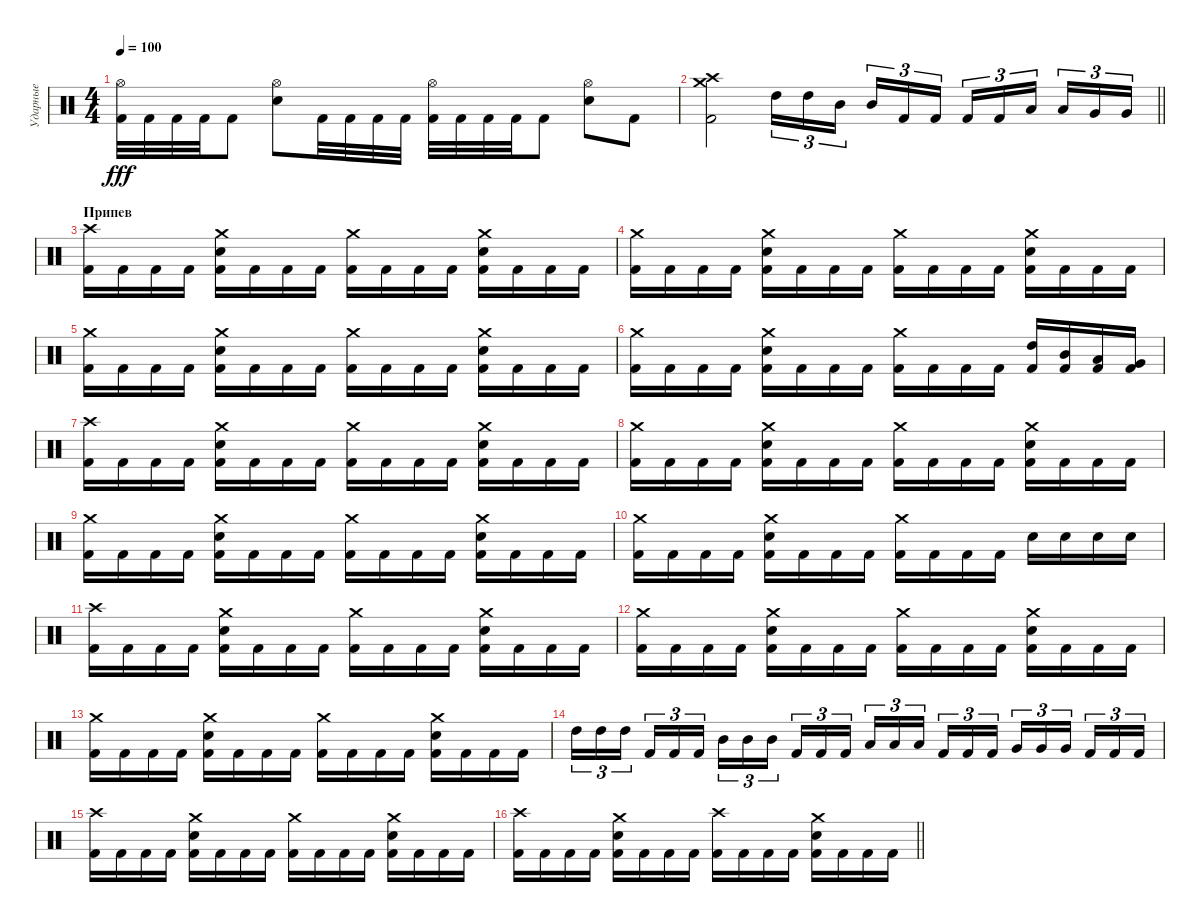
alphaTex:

\track ("Ударные" "Ударные") {instrument percussion}
\staff {score}
\articulation defaults
\ts (4 4)
\tempo 100
\clef neutral
\ks c
("Hi-Hat (open)" "Kick (hit) 2").32{dy fff} "Kick (hit) 2".32 "Kick (hit) 2".32 "Kick (hit) 2".32 "Kick (hit) 2".8 ("Hi-Hat (open)" "Electric Snare (hit)").8 "Kick (hit) 2".32 "Kick (hit) 2".32 "Kick (hit) 2".32 "Kick (hit) 2".32 ("Hi-Hat (open)" "Kick (hit) 2").32 "Kick (hit) 2".32 "Kick (hit) 2".32 "Kick (hit) 2".32 "Kick (hit) 2".8 ("Hi-Hat (open)" "Electric Snare (hit)").8 "Kick (hit) 2".8 |
\barLineRight lightlight
("Crash medium (hit)" "Crash high (hit)" "Kick (hit) 2").2 "High Tom (hit)".16{tu (3 2)} "High Tom (hit)".16{tu (3 2)} "Mid Tom (hit)".16{tu (3 2) beam splitsecondary} "Mid Tom (hit)".16{tu (3 2)} "Kick (hit) 2".16{tu (3 2)} "Kick (hit) 2".16{tu (3 2)} "Kick (hit) 2".16{tu (3 2)} "Kick (hit) 2".16{tu (3 2)} "Low Tom (hit)".16{tu (3 2) beam splitsecondary} "Low Tom (hit)".16{tu (3 2)} "Very Low Tom (hit)".16{tu (3 2)} "Very Low Tom (hit)".16{tu (3 2)} |
\section ("" "Припев")
("Crash high (hit)" "Kick (hit) 2").16 "Kick (hit) 2".16 "Kick (hit) 2".16 "Kick (hit) 2".16 ("Crash medium (hit)" "Electric Snare (hit)" "Kick (hit) 2").16 "Kick (hit) 2".16 "Kick (hit) 2".16 "Kick (hit) 2".16 ("Crash medium (hit)" "Kick (hit) 2").16 "Kick (hit) 2".16 "Kick (hit) 2".16 "Kick (hit) 2".16 ("Crash medium (hit)" "Electric Snare (hit)" "Kick (hit) 2").16 "Kick (hit) 2".16 "Kick (hit) 2".16 "Kick (hit) 2".16 |
("Crash medium (hit)" "Kick (hit) 2").16 "Kick (hit) 2".16 "Kick (hit) 2".16 "Kick (hit) 2".16 ("Crash medium (hit)" "Electric Snare (hit)" "Kick (hit) 2").16 "Kick (hit) 2".16 "Kick (hit) 2".16 "Kick (hit) 2".16 ("Crash medium (hit)" "Kick (hit) 2").16 "Kick (hit) 2".16 "Kick (hit) 2".16 "Kick (hit) 2".16 ("Crash medium (hit)" "Electric Snare (hit)" "Kick (hit) 2").16 "Kick (hit) 2".16 "Kick (hit) 2".16 "Kick (hit) 2".16 |
("Crash medium (hit)" "Kick (hit) 2").16 "Kick (hit) 2".16 "Kick (hit) 2".16 "Kick (hit) 2".16 ("Crash medium (hit)" "Electric Snare (hit)" "Kick (hit) 2").16 "Kick (hit) 2".16 "Kick (hit) 2".16 "Kick (hit) 2".16 ("Crash medium (hit)" "Kick (hit) 2").16 "Kick (hit) 2".16 "Kick (hit) 2".16 "Kick (hit) 2".16 ("Crash medium (hit)" "Electric Snare (hit)" "Kick (hit) 2").16 "Kick (hit) 2".16 "Kick (hit) 2".16 "Kick (hit) 2".16 |
("Crash medium (hit)" "Kick (hit) 2").16 "Kick (hit) 2".16 "Kick (hit) 2".16 "Kick (hit) 2".16 ("Crash medium (hit)" "Electric Snare (hit)" "Kick (hit) 2").16 "Kick (hit) 2".16 "Kick (hit) 2".16 "Kick (hit) 2".16 ("Crash medium (hit)" "Kick (hit) 2").16 "Kick (hit) 2".16 "Kick (hit) 2".16 "Kick (hit) 2".16 ("High Tom (hit)" "Kick (hit) 2").16 ("Mid Tom (hit)" "Kick (hit) 2").16 ("Low Tom (hit)" "Kick (hit) 2").16 ("Very Low Tom (hit)" "Kick (hit) 2").16 |
("Crash high (hit)" "Kick (hit) 2").16 "Kick (hit) 2".16 "Kick (hit) 2".16 "Kick (hit) 2".16 ("Crash medium (hit)" "Electric Snare (hit)" "Kick (hit) 2").16 "Kick (hit) 2".16 "Kick (hit) 2".16 "Kick (hit) 2".16 ("Crash medium (hit)" "Kick (hit) 2").16 "Kick (hit) 2".16 "Kick (hit) 2".16 "Kick (hit) 2".16 ("Crash medium (hit)" "Electric Snare (hit)" "Kick (hit) 2").16 "Kick (hit) 2".16 "Kick (hit) 2".16 "Kick (hit) 2".16 |
("Crash medium (hit)" "Kick (hit) 2").16 "Kick (hit) 2".16 "Kick (hit) 2".16 "Kick (hit) 2".16 ("Crash medium (hit)" "Electric Snare (hit)" "Kick (hit) 2").16 "Kick (hit) 2".16 "Kick (hit) 2".16 "Kick (hit) 2".16 ("Crash medium (hit)" "Kick (hit) 2").16 "Kick (hit) 2".16 "Kick (hit) 2".16 "Kick (hit) 2".16 ("Crash medium (hit)" "Electric Snare (hit)" "Kick (hit) 2").16 "Kick (hit) 2".16 "Kick (hit) 2".16 "Kick (hit) 2".16 |
("Crash medium (hit)" "Kick (hit) 2").16 "Kick (hit) 2".16 "Kick (hit) 2".16 "Kick (hit) 2".16 ("Crash medium (hit)" "Electric Snare (hit)" "Kick (hit) 2").16 "Kick (hit) 2".16 "Kick (hit) 2".16 "Kick (hit) 2".16 ("Crash medium (hit)" "Kick (hit) 2").16 "Kick (hit) 2".16 "Kick (hit) 2".16 "Kick (hit) 2".16 ("Crash medium (hit)" "Electric Snare (hit)" "Kick (hit) 2").16 "Kick (hit) 2".16 "Kick (hit) 2".16 "Kick (hit) 2".16 |
("Crash medium (hit)" "Kick (hit) 2").16 "Kick (hit) 2".16 "Kick (hit) 2".16 "Kick (hit) 2".16 ("Crash medium (hit)" "Electric Snare (hit)" "Kick (hit) 2").16 "Kick (hit) 2".16 "Kick (hit) 2".16 "Kick (hit) 2".16 ("Crash medium (hit)" "Kick (hit) 2").16 "Kick (hit) 2".16 "Kick (hit) 2".16 "Kick (hit) 2".16 "Electric Snare (hit)".16 "Electric Snare (hit)".16 "Electric Snare (hit)".16 "Electric Snare (hit)".16 |
("Crash high (hit)" "Kick (hit) 2").16 "Kick (hit) 2".16 "Kick (hit) 2".16 "Kick (hit) 2".16 ("Crash medium (hit)" "Electric Snare (hit)" "Kick (hit) 2").16 "Kick (hit) 2".16 "Kick (hit) 2".16 "Kick (hit) 2".16 ("Crash medium (hit)" "Kick (hit) 2").16 "Kick (hit) 2".16 "Kick (hit) 2".16 "Kick (hit) 2".16 ("Crash medium (hit)" "Electric Snare (hit)" "Kick (hit) 2").16 "Kick (hit) 2".16 "Kick (hit) 2".16 "Kick (hit) 2".16 |
("Crash medium (hit)" "Kick (hit) 2").16 "Kick (hit) 2".16 "Kick (hit) 2".16 "Kick (hit) 2".16 ("Crash medium (hit)" "Electric Snare (hit)" "Kick (hit) 2").16 "Kick (hit) 2".16 "Kick (hit) 2".16 "Kick (hit) 2".16 ("Crash medium (hit)" "Kick (hit) 2").16 "Kick (hit) 2".16 "Kick (hit) 2".16 "Kick (hit) 2".16 ("Crash medium (hit)" "Electric Snare (hit)" "Kick (hit) 2").16 "Kick (hit) 2".16 "Kick (hit) 2".16 "Kick (hit) 2".16 |
("Crash medium (hit)" "Kick (hit) 2").16 "Kick (hit) 2".16 "Kick (hit) 2".16 "Kick (hit) 2".16 ("Crash medium (hit)" "Electric Snare (hit)" "Kick (hit) 2").16 "Kick (hit) 2".16 "Kick (hit) 2".16 "Kick (hit) 2".16 ("Crash medium (hit)" "Kick (hit) 2").16 "Kick (hit) 2".16 "Kick (hit) 2".16 "Kick (hit) 2".16 ("Crash medium (hit)" "Electric Snare (hit)" "Kick (hit) 2").16 "Kick (hit) 2".16 "Kick (hit) 2".16 "Kick (hit) 2".16 |
"High Tom (hit)".16{tu (3 2)} "High Tom (hit)".16{tu (3 2)} "High Tom (hit)".16{tu (3 2) beam splitsecondary} "Kick (hit) 2".16{tu (3 2)} "Kick (hit) 2".16{tu (3 2)} "Kick (hit) 2".16{tu (3 2)} "Mid Tom (hit)".16{tu (3 2)} "Mid Tom (hit)".16{tu (3 2)} "Mid Tom (hit)".16{tu (3 2) beam splitsecondary} "Kick (hit) 2".16{tu (3 2)} "Kick (hit) 2".16{tu (3 2)} "Kick (hit) 2".16{tu (3 2)} "Low Tom (hit)".16{tu (3 2)} "Low Tom (hit)".16{tu (3 2)} "Low Tom (hit)".16{tu (3 2) beam splitsecondary} "Kick (hit) 2".16{tu (3 2)} "Kick (hit) 2".16{tu (3 2)} "Kick (hit) 2".16{tu (3 2)} "Very Low Tom (hit)".16{tu (3 2)} "Very Low Tom (hit)".16{tu (3 2)} "Very Low Tom (hit)".16{tu (3 2) beam splitsecondary} "Kick (hit) 2".16{tu (3 2)} "Kick (hit) 2".16{tu (3 2)} "Kick (hit) 2".16{tu (3 2)} |
("Crash high (hit)" "Kick (hit) 2").16 "Kick (hit) 2".16 "Kick (hit) 2".16 "Kick (hit) 2".16 ("Crash medium (hit)" "Electric Snare (hit)" "Kick (hit) 2").16 "Kick (hit) 2".16 "Kick (hit) 2".16 "Kick (hit) 2".16 ("Crash medium (hit)" "Kick (hit) 2").16 "Kick (hit) 2".16 "Kick (hit) 2".16 "Kick (hit) 2".16 ("Crash medium (hit)" "Electric Snare (hit)" "Kick (hit) 2").16 "Kick (hit) 2".16 "Kick (hit) 2".16 "Kick (hit) 2".16 |
\barLineRight lightlight
("Crash high (hit)" "Kick (hit) 2").16 "Kick (hit) 2".16 "Kick (hit) 2".16 "Kick (hit) 2".16 ("Crash medium (hit)" "Electric Snare (hit)" "Kick (hit) 2").16 "Kick (hit) 2".16 "Kick (hit) 2".16 "Kick (hit) 2".16 ("Crash high (hit)" "Kick (hit) 2").16 "Kick (hit) 2".16 "Kick (hit) 2".16 "Kick (hit) 2".16 ("Crash medium (hit)" "Electric Snare (hit)" "Kick (hit) 2").16 "Kick (hit) 2".16 "Kick (hit) 2".16 "Kick (hit) 2".16
